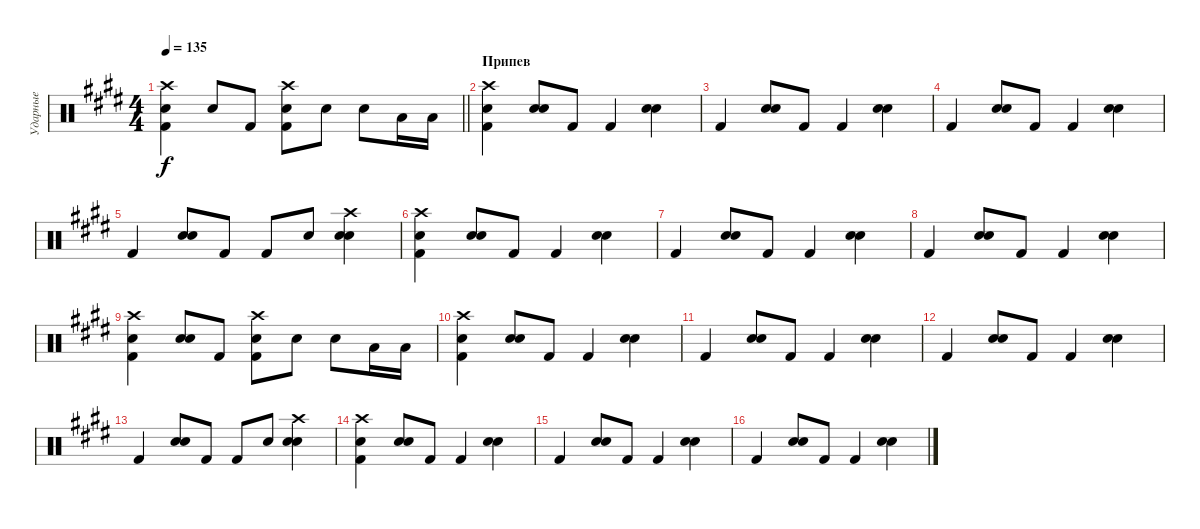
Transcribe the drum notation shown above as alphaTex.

\track ("Ударные" "Ударные") {instrument percussion}
\staff {score}
\articulation defaults
\ts (4 4)
\tempo 135
\clef neutral
\barLineRight lightlight
\ks c#minor
("Crash high (hit)" "Electric Snare (hit)" "Kick (hit) 2").4{dy f} "Electric Snare (hit)".8 "Kick (hit) 2".8 ("Electric Snare (hit)" "Crash high (hit)" "Kick (hit) 2").8 "Electric Snare (hit)".8 "Electric Snare (hit)".8 "Low Floor Tom (hit)".16 "Low Floor Tom (hit)".16 |
\section ("" "Припев")
("Crash high (hit)" "Electric Snare (hit)" "Kick (hit) 2").4 ("Snare (hit) 2" "Electric Snare (hit)").8 "Kick (hit) 2".8 "Kick (hit) 2".4 ("Snare (hit) 2" "Electric Snare (hit)").4 |
"Kick (hit) 2".4 ("Snare (hit) 2" "Electric Snare (hit)").8 "Kick (hit) 2".8 "Kick (hit) 2".4 ("Snare (hit) 2" "Electric Snare (hit)").4 |
"Kick (hit) 2".4 ("Snare (hit) 2" "Electric Snare (hit)").8 "Kick (hit) 2".8 "Kick (hit) 2".4 ("Snare (hit) 2" "Electric Snare (hit)").4 |
"Kick (hit) 2".4 ("Snare (hit) 2" "Electric Snare (hit)").8 "Kick (hit) 2".8 "Kick (hit) 2".8 "Electric Snare (hit)".8 ("Crash high (hit)" "Snare (hit) 2" "Electric Snare (hit)").4 |
("Crash high (hit)" "Electric Snare (hit)" "Kick (hit) 2").4 ("Snare (hit) 2" "Electric Snare (hit)").8 "Kick (hit) 2".8 "Kick (hit) 2".4 ("Snare (hit) 2" "Electric Snare (hit)").4 |
"Kick (hit) 2".4 ("Snare (hit) 2" "Electric Snare (hit)").8 "Kick (hit) 2".8 "Kick (hit) 2".4 ("Snare (hit) 2" "Electric Snare (hit)").4 |
"Kick (hit) 2".4 ("Snare (hit) 2" "Electric Snare (hit)").8 "Kick (hit) 2".8 "Kick (hit) 2".4 ("Snare (hit) 2" "Electric Snare (hit)").4 |
("Crash high (hit)" "Electric Snare (hit)" "Kick (hit) 2").4 ("Snare (hit) 2" "Electric Snare (hit)").8 "Kick (hit) 2".8 ("Electric Snare (hit)" "Crash high (hit)" "Kick (hit) 2").8 "Electric Snare (hit)".8 "Electric Snare (hit)".8 "Low Floor Tom (hit)".16 "Low Floor Tom (hit)".16 |
("Crash high (hit)" "Electric Snare (hit)" "Kick (hit) 2").4 ("Snare (hit) 2" "Electric Snare (hit)").8 "Kick (hit) 2".8 "Kick (hit) 2".4 ("Snare (hit) 2" "Electric Snare (hit)").4 |
"Kick (hit) 2".4 ("Snare (hit) 2" "Electric Snare (hit)").8 "Kick (hit) 2".8 "Kick (hit) 2".4 ("Snare (hit) 2" "Electric Snare (hit)").4 |
"Kick (hit) 2".4 ("Snare (hit) 2" "Electric Snare (hit)").8 "Kick (hit) 2".8 "Kick (hit) 2".4 ("Snare (hit) 2" "Electric Snare (hit)").4 |
"Kick (hit) 2".4 ("Snare (hit) 2" "Electric Snare (hit)").8 "Kick (hit) 2".8 "Kick (hit) 2".8 "Electric Snare (hit)".8 ("Crash high (hit)" "Snare (hit) 2" "Electric Snare (hit)").4 |
("Crash high (hit)" "Electric Snare (hit)" "Kick (hit) 2").4 ("Snare (hit) 2" "Electric Snare (hit)").8 "Kick (hit) 2".8 "Kick (hit) 2".4 ("Snare (hit) 2" "Electric Snare (hit)").4 |
"Kick (hit) 2".4 ("Snare (hit) 2" "Electric Snare (hit)").8 "Kick (hit) 2".8 "Kick (hit) 2".4 ("Snare (hit) 2" "Electric Snare (hit)").4 |
"Kick (hit) 2".4 ("Snare (hit) 2" "Electric Snare (hit)").8 "Kick (hit) 2".8 "Kick (hit) 2".4 ("Snare (hit) 2" "Electric Snare (hit)").4
